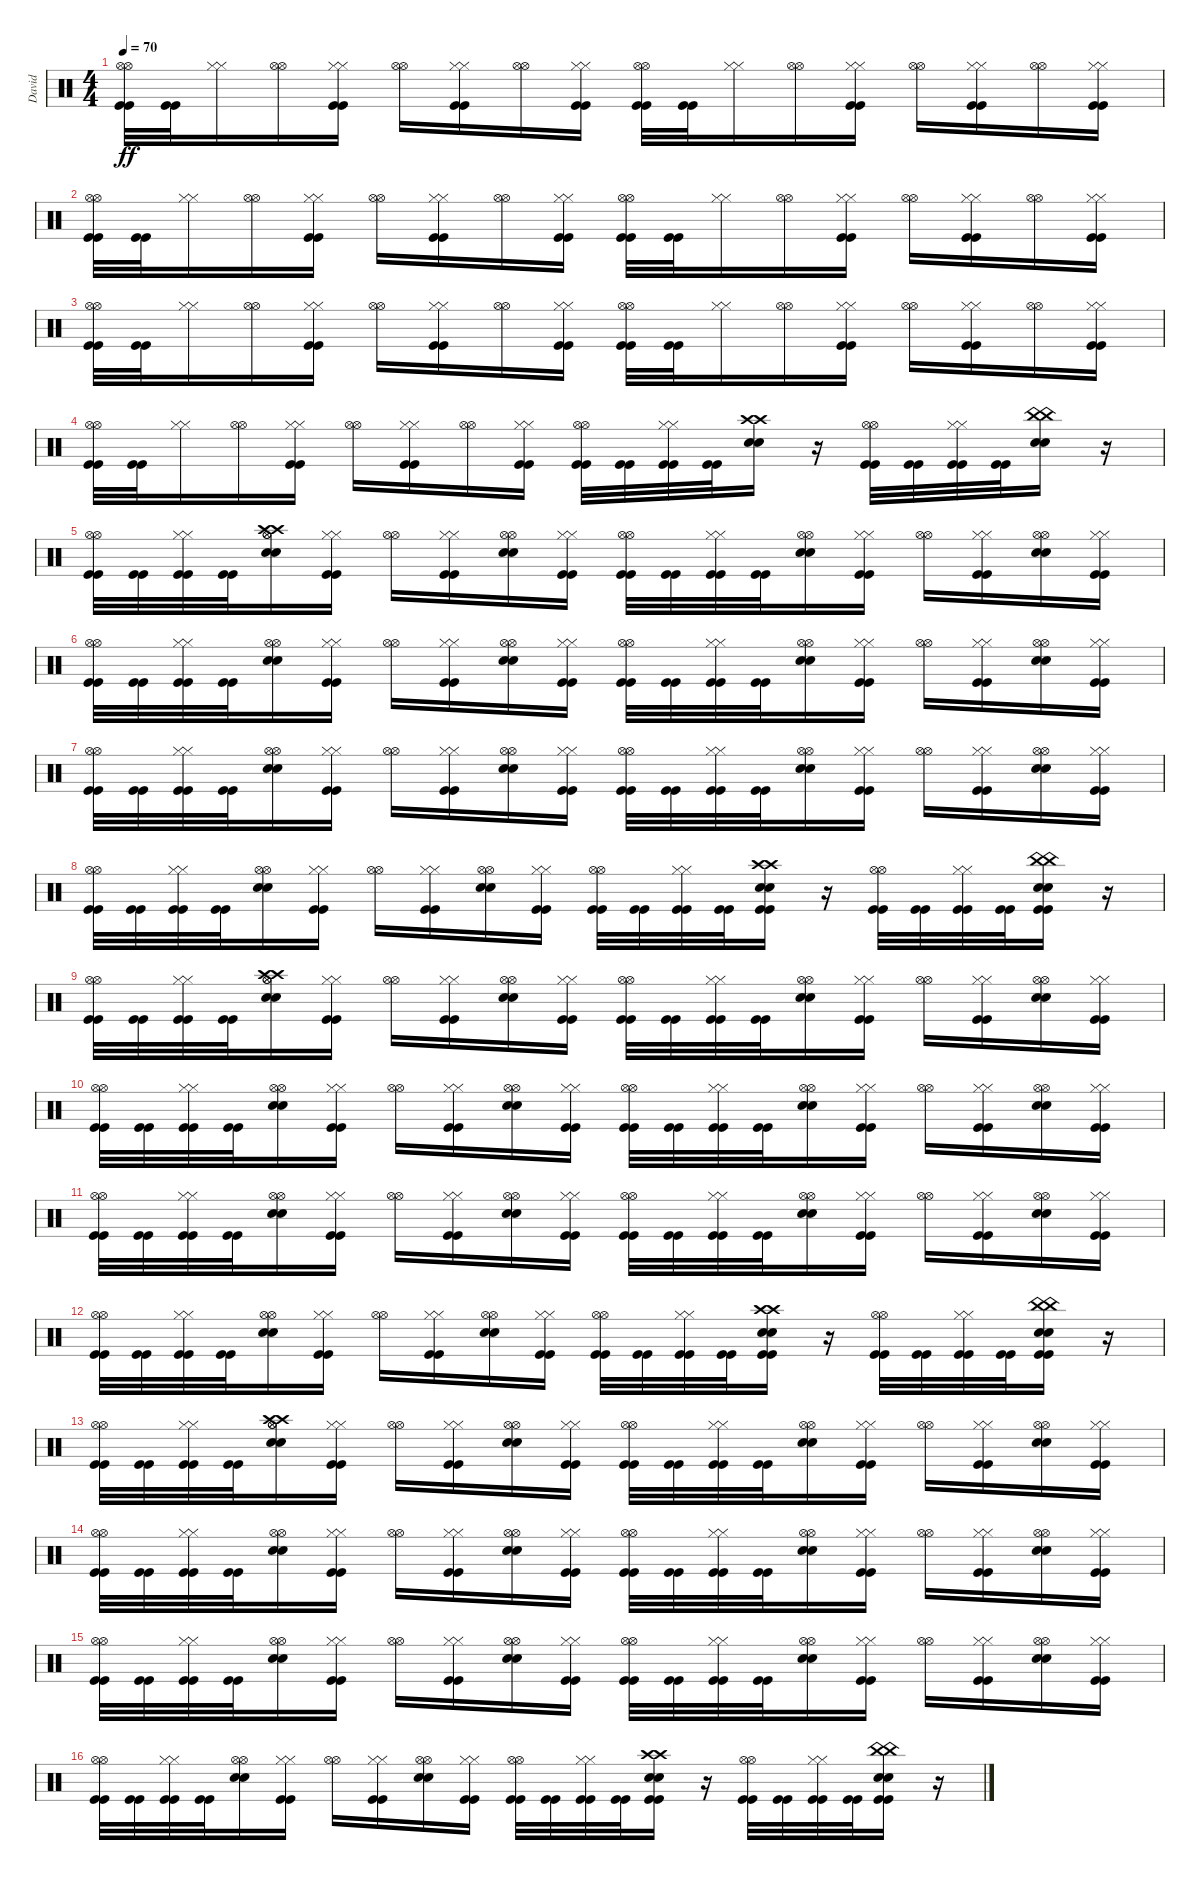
\track ("David" "David") {instrument percussion}
\staff {score}
\articulation defaults
\ts (4 4)
\tempo 70
\clef neutral
\ks c
("Kick (hit)" "Kick (hit)" "Hi-Hat (open)" "Hi-Hat (open)").32{dy ff} ("Kick (hit)" "Kick (hit)").32 ("Hi-Hat (closed)" "Hi-Hat (closed)").16 ("Hi-Hat (open)" "Hi-Hat (open)").16 ("Hi-Hat (closed)" "Hi-Hat (closed)" "Kick (hit)" "Kick (hit)").16 ("Hi-Hat (open)" "Hi-Hat (open)").16 ("Hi-Hat (closed)" "Hi-Hat (closed)" "Kick (hit)" "Kick (hit)").16 ("Hi-Hat (open)" "Hi-Hat (open)").16 ("Kick (hit)" "Kick (hit)" "Hi-Hat (closed)" "Hi-Hat (closed)").16 ("Hi-Hat (open)" "Hi-Hat (open)" "Kick (hit)" "Kick (hit)").32 ("Kick (hit)" "Kick (hit)").32 ("Hi-Hat (closed)" "Hi-Hat (closed)").16 ("Hi-Hat (open)" "Hi-Hat (open)").16 ("Hi-Hat (closed)" "Hi-Hat (closed)" "Kick (hit)" "Kick (hit)").16 ("Hi-Hat (open)" "Hi-Hat (open)").16 ("Hi-Hat (closed)" "Hi-Hat (closed)" "Kick (hit)" "Kick (hit)").16 ("Hi-Hat (open)" "Hi-Hat (open)").16 ("Kick (hit)" "Kick (hit)" "Hi-Hat (closed)" "Hi-Hat (closed)").16 |
("Kick (hit)" "Kick (hit)" "Hi-Hat (open)" "Hi-Hat (open)").32 ("Kick (hit)" "Kick (hit)").32 ("Hi-Hat (closed)" "Hi-Hat (closed)").16 ("Hi-Hat (open)" "Hi-Hat (open)").16 ("Kick (hit)" "Kick (hit)" "Hi-Hat (closed)" "Hi-Hat (closed)").16 ("Hi-Hat (open)" "Hi-Hat (open)").16 ("Kick (hit)" "Kick (hit)" "Hi-Hat (closed)" "Hi-Hat (closed)").16 ("Hi-Hat (open)" "Hi-Hat (open)").16 ("Kick (hit)" "Kick (hit)" "Hi-Hat (closed)" "Hi-Hat (closed)").16 ("Kick (hit)" "Kick (hit)" "Hi-Hat (open)" "Hi-Hat (open)").32 ("Kick (hit)" "Kick (hit)").32 ("Hi-Hat (closed)" "Hi-Hat (closed)").16 ("Hi-Hat (open)" "Hi-Hat (open)").16 ("Kick (hit)" "Kick (hit)" "Hi-Hat (closed)" "Hi-Hat (closed)").16 ("Hi-Hat (open)" "Hi-Hat (open)").16 ("Hi-Hat (closed)" "Hi-Hat (closed)" "Kick (hit)" "Kick (hit)").16 ("Hi-Hat (open)" "Hi-Hat (open)").16 ("Kick (hit)" "Kick (hit)" "Hi-Hat (closed)" "Hi-Hat (closed)").16 |
("Hi-Hat (open)" "Hi-Hat (open)" "Kick (hit)" "Kick (hit)").32 ("Kick (hit)" "Kick (hit)").32 ("Hi-Hat (closed)" "Hi-Hat (closed)").16 ("Hi-Hat (open)" "Hi-Hat (open)").16 ("Hi-Hat (closed)" "Hi-Hat (closed)" "Kick (hit)" "Kick (hit)").16 ("Hi-Hat (open)" "Hi-Hat (open)").16 ("Hi-Hat (closed)" "Hi-Hat (closed)" "Kick (hit)" "Kick (hit)").16 ("Hi-Hat (open)" "Hi-Hat (open)").16 ("Hi-Hat (closed)" "Hi-Hat (closed)" "Kick (hit)" "Kick (hit)").16 ("Hi-Hat (open)" "Hi-Hat (open)" "Kick (hit)" "Kick (hit)").32 ("Kick (hit)" "Kick (hit)").32 ("Hi-Hat (closed)" "Hi-Hat (closed)").16 ("Hi-Hat (open)" "Hi-Hat (open)").16 ("Hi-Hat (closed)" "Hi-Hat (closed)" "Kick (hit)" "Kick (hit)").16 ("Hi-Hat (open)" "Hi-Hat (open)").16 ("Kick (hit)" "Kick (hit)" "Hi-Hat (closed)" "Hi-Hat (closed)").16 ("Hi-Hat (open)" "Hi-Hat (open)").16 ("Hi-Hat (closed)" "Hi-Hat (closed)" "Kick (hit)" "Kick (hit)").16 |
("Kick (hit)" "Kick (hit)" "Hi-Hat (open)" "Hi-Hat (open)").32 ("Kick (hit)" "Kick (hit)").32 ("Hi-Hat (closed)" "Hi-Hat (closed)").16 ("Hi-Hat (open)" "Hi-Hat (open)").16 ("Kick (hit)" "Kick (hit)" "Hi-Hat (closed)" "Hi-Hat (closed)").16 ("Hi-Hat (open)" "Hi-Hat (open)").16 ("Kick (hit)" "Kick (hit)" "Hi-Hat (closed)" "Hi-Hat (closed)").16 ("Hi-Hat (open)" "Hi-Hat (open)").16 ("Kick (hit)" "Kick (hit)" "Hi-Hat (closed)" "Hi-Hat (closed)").16 ("Kick (hit)" "Kick (hit)" "Hi-Hat (open)" "Hi-Hat (open)").32 ("Kick (hit)" "Kick (hit)").32 ("Hi-Hat (closed)" "Hi-Hat (closed)" "Kick (hit)" "Kick (hit)").32 ("Kick (hit)" "Kick (hit)").32 ("Crash high (hit)" "Crash high (hit)" "Snare (hit) 2" "Snare (hit) 2").16 r.16 ("Kick (hit)" "Kick (hit)" "Hi-Hat (open)" "Hi-Hat (open)").32 ("Kick (hit)" "Kick (hit)").32 ("Kick (hit)" "Kick (hit)" "Hi-Hat (closed)" "Hi-Hat (closed)").32 ("Kick (hit)" "Kick (hit)").32 ("Snare (hit) 2" "Snare (hit) 2" "China (hit)" "China (hit)").16 r.16 |
("Hi-Hat (open)" "Hi-Hat (open)" "Kick (hit)" "Kick (hit)").32 ("Kick (hit)" "Kick (hit)").32 ("Hi-Hat (closed)" "Hi-Hat (closed)" "Kick (hit)" "Kick (hit)").32 ("Kick (hit)" "Kick (hit)").32 ("Hi-Hat (open)" "Hi-Hat (open)" "Snare (hit) 2" "Snare (hit) 2" "Crash high (hit)" "Crash high (hit)").16 ("Kick (hit)" "Kick (hit)" "Hi-Hat (closed)" "Hi-Hat (closed)").16 ("Hi-Hat (open)" "Hi-Hat (open)").16 ("Kick (hit)" "Kick (hit)" "Hi-Hat (closed)" "Hi-Hat (closed)").16 ("Snare (hit) 2" "Snare (hit) 2" "Hi-Hat (open)" "Hi-Hat (open)").16 ("Hi-Hat (closed)" "Hi-Hat (closed)" "Kick (hit)" "Kick (hit)").16 ("Kick (hit)" "Kick (hit)" "Hi-Hat (open)" "Hi-Hat (open)").32 ("Kick (hit)" "Kick (hit)").32 ("Hi-Hat (closed)" "Hi-Hat (closed)" "Kick (hit)" "Kick (hit)").32 ("Kick (hit)" "Kick (hit)").32 ("Hi-Hat (open)" "Hi-Hat (open)" "Snare (hit) 2" "Snare (hit) 2").16 ("Kick (hit)" "Kick (hit)" "Hi-Hat (closed)" "Hi-Hat (closed)").16 ("Hi-Hat (open)" "Hi-Hat (open)").16 ("Kick (hit)" "Kick (hit)" "Hi-Hat (closed)" "Hi-Hat (closed)").16 ("Hi-Hat (open)" "Hi-Hat (open)" "Snare (hit) 2" "Snare (hit) 2").16 ("Hi-Hat (closed)" "Hi-Hat (closed)" "Kick (hit)" "Kick (hit)").16 |
("Hi-Hat (open)" "Hi-Hat (open)" "Kick (hit)" "Kick (hit)").32 ("Kick (hit)" "Kick (hit)").32 ("Hi-Hat (closed)" "Hi-Hat (closed)" "Kick (hit)" "Kick (hit)").32 ("Kick (hit)" "Kick (hit)").32 ("Snare (hit) 2" "Snare (hit) 2" "Hi-Hat (open)" "Hi-Hat (open)").16 ("Hi-Hat (closed)" "Hi-Hat (closed)" "Kick (hit)" "Kick (hit)").16 ("Hi-Hat (open)" "Hi-Hat (open)").16 ("Hi-Hat (closed)" "Hi-Hat (closed)" "Kick (hit)" "Kick (hit)").16 ("Hi-Hat (open)" "Hi-Hat (open)" "Snare (hit) 2" "Snare (hit) 2").16 ("Hi-Hat (closed)" "Hi-Hat (closed)" "Kick (hit)" "Kick (hit)").16 ("Hi-Hat (open)" "Hi-Hat (open)" "Kick (hit)" "Kick (hit)").32 ("Kick (hit)" "Kick (hit)").32 ("Hi-Hat (closed)" "Hi-Hat (closed)" "Kick (hit)" "Kick (hit)").32 ("Kick (hit)" "Kick (hit)").32 ("Hi-Hat (open)" "Hi-Hat (open)" "Snare (hit) 2" "Snare (hit) 2").16 ("Hi-Hat (closed)" "Hi-Hat (closed)" "Kick (hit)" "Kick (hit)").16 ("Hi-Hat (open)" "Hi-Hat (open)").16 ("Kick (hit)" "Kick (hit)" "Hi-Hat (closed)" "Hi-Hat (closed)").16 ("Hi-Hat (open)" "Hi-Hat (open)" "Snare (hit) 2" "Snare (hit) 2").16 ("Hi-Hat (closed)" "Hi-Hat (closed)" "Kick (hit)" "Kick (hit)").16 |
("Hi-Hat (open)" "Hi-Hat (open)" "Kick (hit)" "Kick (hit)").32 ("Kick (hit)" "Kick (hit)").32 ("Hi-Hat (closed)" "Hi-Hat (closed)" "Kick (hit)" "Kick (hit)").32 ("Kick (hit)" "Kick (hit)").32 ("Snare (hit) 2" "Snare (hit) 2" "Hi-Hat (open)" "Hi-Hat (open)").16 ("Hi-Hat (closed)" "Hi-Hat (closed)" "Kick (hit)" "Kick (hit)").16 ("Hi-Hat (open)" "Hi-Hat (open)").16 ("Hi-Hat (closed)" "Hi-Hat (closed)" "Kick (hit)" "Kick (hit)").16 ("Snare (hit) 2" "Snare (hit) 2" "Hi-Hat (open)" "Hi-Hat (open)").16 ("Kick (hit)" "Kick (hit)" "Hi-Hat (closed)" "Hi-Hat (closed)").16 ("Kick (hit)" "Kick (hit)" "Hi-Hat (open)" "Hi-Hat (open)").32 ("Kick (hit)" "Kick (hit)").32 ("Hi-Hat (closed)" "Hi-Hat (closed)" "Kick (hit)" "Kick (hit)").32 ("Kick (hit)" "Kick (hit)").32 ("Hi-Hat (open)" "Hi-Hat (open)" "Snare (hit) 2" "Snare (hit) 2").16 ("Kick (hit)" "Kick (hit)" "Hi-Hat (closed)" "Hi-Hat (closed)").16 ("Hi-Hat (open)" "Hi-Hat (open)").16 ("Kick (hit)" "Kick (hit)" "Hi-Hat (closed)" "Hi-Hat (closed)").16 ("Hi-Hat (open)" "Hi-Hat (open)" "Snare (hit) 2" "Snare (hit) 2").16 ("Kick (hit)" "Kick (hit)" "Hi-Hat (closed)" "Hi-Hat (closed)").16 |
("Hi-Hat (open)" "Hi-Hat (open)" "Kick (hit)" "Kick (hit)").32 ("Kick (hit)" "Kick (hit)").32 ("Hi-Hat (closed)" "Hi-Hat (closed)" "Kick (hit)" "Kick (hit)").32 ("Kick (hit)" "Kick (hit)").32 ("Snare (hit) 2" "Snare (hit) 2" "Hi-Hat (open)" "Hi-Hat (open)").16 ("Hi-Hat (closed)" "Hi-Hat (closed)" "Kick (hit)" "Kick (hit)").16 ("Hi-Hat (open)" "Hi-Hat (open)").16 ("Hi-Hat (closed)" "Hi-Hat (closed)" "Kick (hit)" "Kick (hit)").16 ("Snare (hit) 2" "Snare (hit) 2" "Hi-Hat (open)" "Hi-Hat (open)").16 ("Kick (hit)" "Kick (hit)" "Hi-Hat (closed)" "Hi-Hat (closed)").16 ("Kick (hit)" "Kick (hit)" "Hi-Hat (open)" "Hi-Hat (open)").32 ("Kick (hit)" "Kick (hit)").32 ("Hi-Hat (closed)" "Hi-Hat (closed)" "Kick (hit)" "Kick (hit)").32 ("Kick (hit)" "Kick (hit)").32 ("Snare (hit) 2" "Snare (hit) 2" "Crash high (hit)" "Crash high (hit)" "Kick (hit)" "Kick (hit)").16 r.16 ("Kick (hit)" "Kick (hit)" "Hi-Hat (open)" "Hi-Hat (open)").32 ("Kick (hit)" "Kick (hit)").32 ("Kick (hit)" "Kick (hit)" "Hi-Hat (closed)" "Hi-Hat (closed)").32 ("Kick (hit)" "Kick (hit)").32 ("Snare (hit) 2" "Snare (hit) 2" "China (hit)" "China (hit)" "Kick (hit)" "Kick (hit)").16 r.16 |
("Kick (hit)" "Kick (hit)" "Hi-Hat (open)" "Hi-Hat (open)").32 ("Kick (hit)" "Kick (hit)").32 ("Kick (hit)" "Kick (hit)" "Hi-Hat (closed)" "Hi-Hat (closed)").32 ("Kick (hit)" "Kick (hit)").32 ("Crash high (hit)" "Crash high (hit)" "Snare (hit) 2" "Snare (hit) 2" "Hi-Hat (open)" "Hi-Hat (open)").16 ("Hi-Hat (closed)" "Hi-Hat (closed)" "Kick (hit)" "Kick (hit)").16 ("Hi-Hat (open)" "Hi-Hat (open)").16 ("Hi-Hat (closed)" "Hi-Hat (closed)" "Kick (hit)" "Kick (hit)").16 ("Hi-Hat (open)" "Hi-Hat (open)" "Snare (hit) 2" "Snare (hit) 2").16 ("Kick (hit)" "Kick (hit)" "Hi-Hat (closed)" "Hi-Hat (closed)").16 ("Hi-Hat (open)" "Hi-Hat (open)" "Kick (hit)" "Kick (hit)").32 ("Kick (hit)" "Kick (hit)").32 ("Kick (hit)" "Kick (hit)" "Hi-Hat (closed)" "Hi-Hat (closed)").32 ("Kick (hit)" "Kick (hit)").32 ("Snare (hit) 2" "Snare (hit) 2" "Hi-Hat (open)" "Hi-Hat (open)").16 ("Hi-Hat (closed)" "Hi-Hat (closed)" "Kick (hit)" "Kick (hit)").16 ("Hi-Hat (open)" "Hi-Hat (open)").16 ("Hi-Hat (closed)" "Hi-Hat (closed)" "Kick (hit)" "Kick (hit)").16 ("Snare (hit) 2" "Snare (hit) 2" "Hi-Hat (open)" "Hi-Hat (open)").16 ("Kick (hit)" "Kick (hit)" "Hi-Hat (closed)" "Hi-Hat (closed)").16 |
("Kick (hit)" "Kick (hit)" "Hi-Hat (open)" "Hi-Hat (open)").32 ("Kick (hit)" "Kick (hit)").32 ("Kick (hit)" "Kick (hit)" "Hi-Hat (closed)" "Hi-Hat (closed)").32 ("Kick (hit)" "Kick (hit)").32 ("Hi-Hat (open)" "Hi-Hat (open)" "Snare (hit) 2" "Snare (hit) 2").16 ("Kick (hit)" "Kick (hit)" "Hi-Hat (closed)" "Hi-Hat (closed)").16 ("Hi-Hat (open)" "Hi-Hat (open)").16 ("Kick (hit)" "Kick (hit)" "Hi-Hat (closed)" "Hi-Hat (closed)").16 ("Snare (hit) 2" "Snare (hit) 2" "Hi-Hat (open)" "Hi-Hat (open)").16 ("Kick (hit)" "Kick (hit)" "Hi-Hat (closed)" "Hi-Hat (closed)").16 ("Kick (hit)" "Kick (hit)" "Hi-Hat (open)" "Hi-Hat (open)").32 ("Kick (hit)" "Kick (hit)").32 ("Kick (hit)" "Kick (hit)" "Hi-Hat (closed)" "Hi-Hat (closed)").32 ("Kick (hit)" "Kick (hit)").32 ("Snare (hit) 2" "Snare (hit) 2" "Hi-Hat (open)" "Hi-Hat (open)").16 ("Kick (hit)" "Kick (hit)" "Hi-Hat (closed)" "Hi-Hat (closed)").16 ("Hi-Hat (open)" "Hi-Hat (open)").16 ("Hi-Hat (closed)" "Hi-Hat (closed)" "Kick (hit)" "Kick (hit)").16 ("Snare (hit) 2" "Snare (hit) 2" "Hi-Hat (open)" "Hi-Hat (open)").16 ("Kick (hit)" "Kick (hit)" "Hi-Hat (closed)" "Hi-Hat (closed)").16 |
("Kick (hit)" "Kick (hit)" "Hi-Hat (open)" "Hi-Hat (open)").32 ("Kick (hit)" "Kick (hit)").32 ("Kick (hit)" "Kick (hit)" "Hi-Hat (closed)" "Hi-Hat (closed)").32 ("Kick (hit)" "Kick (hit)").32 ("Hi-Hat (open)" "Hi-Hat (open)" "Snare (hit) 2" "Snare (hit) 2").16 ("Kick (hit)" "Kick (hit)" "Hi-Hat (closed)" "Hi-Hat (closed)").16 ("Hi-Hat (open)" "Hi-Hat (open)").16 ("Kick (hit)" "Kick (hit)" "Hi-Hat (closed)" "Hi-Hat (closed)").16 ("Hi-Hat (open)" "Hi-Hat (open)" "Snare (hit) 2" "Snare (hit) 2").16 ("Hi-Hat (closed)" "Hi-Hat (closed)" "Kick (hit)" "Kick (hit)").16 ("Hi-Hat (open)" "Hi-Hat (open)" "Kick (hit)" "Kick (hit)").32 ("Kick (hit)" "Kick (hit)").32 ("Kick (hit)" "Kick (hit)" "Hi-Hat (closed)" "Hi-Hat (closed)").32 ("Kick (hit)" "Kick (hit)").32 ("Snare (hit) 2" "Snare (hit) 2" "Hi-Hat (open)" "Hi-Hat (open)").16 ("Hi-Hat (closed)" "Hi-Hat (closed)" "Kick (hit)" "Kick (hit)").16 ("Hi-Hat (open)" "Hi-Hat (open)").16 ("Hi-Hat (closed)" "Hi-Hat (closed)" "Kick (hit)" "Kick (hit)").16 ("Snare (hit) 2" "Snare (hit) 2" "Hi-Hat (open)" "Hi-Hat (open)").16 ("Hi-Hat (closed)" "Hi-Hat (closed)" "Kick (hit)" "Kick (hit)").16 |
("Kick (hit)" "Kick (hit)" "Hi-Hat (open)" "Hi-Hat (open)").32 ("Kick (hit)" "Kick (hit)").32 ("Kick (hit)" "Kick (hit)" "Hi-Hat (closed)" "Hi-Hat (closed)").32 ("Kick (hit)" "Kick (hit)").32 ("Hi-Hat (open)" "Hi-Hat (open)" "Snare (hit) 2" "Snare (hit) 2").16 ("Kick (hit)" "Kick (hit)" "Hi-Hat (closed)" "Hi-Hat (closed)").16 ("Hi-Hat (open)" "Hi-Hat (open)").16 ("Kick (hit)" "Kick (hit)" "Hi-Hat (closed)" "Hi-Hat (closed)").16 ("Hi-Hat (open)" "Hi-Hat (open)" "Snare (hit) 2" "Snare (hit) 2").16 ("Hi-Hat (closed)" "Hi-Hat (closed)" "Kick (hit)" "Kick (hit)").16 ("Hi-Hat (open)" "Hi-Hat (open)" "Kick (hit)" "Kick (hit)").32 ("Kick (hit)" "Kick (hit)").32 ("Kick (hit)" "Kick (hit)" "Hi-Hat (closed)" "Hi-Hat (closed)").32 ("Kick (hit)" "Kick (hit)").32 ("Kick (hit)" "Kick (hit)" "Crash high (hit)" "Crash high (hit)" "Snare (hit) 2" "Snare (hit) 2").16 r.16 ("Hi-Hat (open)" "Hi-Hat (open)" "Kick (hit)" "Kick (hit)").32 ("Kick (hit)" "Kick (hit)").32 ("Hi-Hat (closed)" "Hi-Hat (closed)" "Kick (hit)" "Kick (hit)").32 ("Kick (hit)" "Kick (hit)").32 ("Kick (hit)" "Kick (hit)" "China (hit)" "China (hit)" "Snare (hit) 2" "Snare (hit) 2").16 r.16 |
("Kick (hit)" "Kick (hit)" "Hi-Hat (open)" "Hi-Hat (open)").32 ("Kick (hit)" "Kick (hit)").32 ("Kick (hit)" "Kick (hit)" "Hi-Hat (closed)" "Hi-Hat (closed)").32 ("Kick (hit)" "Kick (hit)").32 ("Crash high (hit)" "Crash high (hit)" "Snare (hit) 2" "Snare (hit) 2" "Hi-Hat (open)" "Hi-Hat (open)").16 ("Hi-Hat (closed)" "Hi-Hat (closed)" "Kick (hit)" "Kick (hit)").16 ("Hi-Hat (open)" "Hi-Hat (open)").16 ("Hi-Hat (closed)" "Hi-Hat (closed)" "Kick (hit)" "Kick (hit)").16 ("Hi-Hat (open)" "Hi-Hat (open)" "Snare (hit) 2" "Snare (hit) 2").16 ("Kick (hit)" "Kick (hit)" "Hi-Hat (closed)" "Hi-Hat (closed)").16 ("Hi-Hat (open)" "Hi-Hat (open)" "Kick (hit)" "Kick (hit)").32 ("Kick (hit)" "Kick (hit)").32 ("Kick (hit)" "Kick (hit)" "Hi-Hat (closed)" "Hi-Hat (closed)").32 ("Kick (hit)" "Kick (hit)").32 ("Snare (hit) 2" "Snare (hit) 2" "Hi-Hat (open)" "Hi-Hat (open)").16 ("Hi-Hat (closed)" "Hi-Hat (closed)" "Kick (hit)" "Kick (hit)").16 ("Hi-Hat (open)" "Hi-Hat (open)").16 ("Hi-Hat (closed)" "Hi-Hat (closed)" "Kick (hit)" "Kick (hit)").16 ("Snare (hit) 2" "Snare (hit) 2" "Hi-Hat (open)" "Hi-Hat (open)").16 ("Kick (hit)" "Kick (hit)" "Hi-Hat (closed)" "Hi-Hat (closed)").16 |
("Kick (hit)" "Kick (hit)" "Hi-Hat (open)" "Hi-Hat (open)").32 ("Kick (hit)" "Kick (hit)").32 ("Kick (hit)" "Kick (hit)" "Hi-Hat (closed)" "Hi-Hat (closed)").32 ("Kick (hit)" "Kick (hit)").32 ("Hi-Hat (open)" "Hi-Hat (open)" "Snare (hit) 2" "Snare (hit) 2").16 ("Kick (hit)" "Kick (hit)" "Hi-Hat (closed)" "Hi-Hat (closed)").16 ("Hi-Hat (open)" "Hi-Hat (open)").16 ("Kick (hit)" "Kick (hit)" "Hi-Hat (closed)" "Hi-Hat (closed)").16 ("Snare (hit) 2" "Snare (hit) 2" "Hi-Hat (open)" "Hi-Hat (open)").16 ("Kick (hit)" "Kick (hit)" "Hi-Hat (closed)" "Hi-Hat (closed)").16 ("Kick (hit)" "Kick (hit)" "Hi-Hat (open)" "Hi-Hat (open)").32 ("Kick (hit)" "Kick (hit)").32 ("Kick (hit)" "Kick (hit)" "Hi-Hat (closed)" "Hi-Hat (closed)").32 ("Kick (hit)" "Kick (hit)").32 ("Snare (hit) 2" "Snare (hit) 2" "Hi-Hat (open)" "Hi-Hat (open)").16 ("Kick (hit)" "Kick (hit)" "Hi-Hat (closed)" "Hi-Hat (closed)").16 ("Hi-Hat (open)" "Hi-Hat (open)").16 ("Hi-Hat (closed)" "Hi-Hat (closed)" "Kick (hit)" "Kick (hit)").16 ("Snare (hit) 2" "Snare (hit) 2" "Hi-Hat (open)" "Hi-Hat (open)").16 ("Kick (hit)" "Kick (hit)" "Hi-Hat (closed)" "Hi-Hat (closed)").16 |
("Kick (hit)" "Kick (hit)" "Hi-Hat (open)" "Hi-Hat (open)").32 ("Kick (hit)" "Kick (hit)").32 ("Kick (hit)" "Kick (hit)" "Hi-Hat (closed)" "Hi-Hat (closed)").32 ("Kick (hit)" "Kick (hit)").32 ("Hi-Hat (open)" "Hi-Hat (open)" "Snare (hit) 2" "Snare (hit) 2").16 ("Kick (hit)" "Kick (hit)" "Hi-Hat (closed)" "Hi-Hat (closed)").16 ("Hi-Hat (open)" "Hi-Hat (open)").16 ("Kick (hit)" "Kick (hit)" "Hi-Hat (closed)" "Hi-Hat (closed)").16 ("Hi-Hat (open)" "Hi-Hat (open)" "Snare (hit) 2" "Snare (hit) 2").16 ("Hi-Hat (closed)" "Hi-Hat (closed)" "Kick (hit)" "Kick (hit)").16 ("Hi-Hat (open)" "Hi-Hat (open)" "Kick (hit)" "Kick (hit)").32 ("Kick (hit)" "Kick (hit)").32 ("Kick (hit)" "Kick (hit)" "Hi-Hat (closed)" "Hi-Hat (closed)").32 ("Kick (hit)" "Kick (hit)").32 ("Snare (hit) 2" "Snare (hit) 2" "Hi-Hat (open)" "Hi-Hat (open)").16 ("Hi-Hat (closed)" "Hi-Hat (closed)" "Kick (hit)" "Kick (hit)").16 ("Hi-Hat (open)" "Hi-Hat (open)").16 ("Hi-Hat (closed)" "Hi-Hat (closed)" "Kick (hit)" "Kick (hit)").16 ("Snare (hit) 2" "Snare (hit) 2" "Hi-Hat (open)" "Hi-Hat (open)").16 ("Hi-Hat (closed)" "Hi-Hat (closed)" "Kick (hit)" "Kick (hit)").16 |
("Kick (hit)" "Kick (hit)" "Hi-Hat (open)" "Hi-Hat (open)").32 ("Kick (hit)" "Kick (hit)").32 ("Kick (hit)" "Kick (hit)" "Hi-Hat (closed)" "Hi-Hat (closed)").32 ("Kick (hit)" "Kick (hit)").32 ("Hi-Hat (open)" "Hi-Hat (open)" "Snare (hit) 2" "Snare (hit) 2").16 ("Kick (hit)" "Kick (hit)" "Hi-Hat (closed)" "Hi-Hat (closed)").16 ("Hi-Hat (open)" "Hi-Hat (open)").16 ("Kick (hit)" "Kick (hit)" "Hi-Hat (closed)" "Hi-Hat (closed)").16 ("Hi-Hat (open)" "Hi-Hat (open)" "Snare (hit) 2" "Snare (hit) 2").16 ("Hi-Hat (closed)" "Hi-Hat (closed)" "Kick (hit)" "Kick (hit)").16 ("Hi-Hat (open)" "Hi-Hat (open)" "Kick (hit)" "Kick (hit)").32 ("Kick (hit)" "Kick (hit)").32 ("Kick (hit)" "Kick (hit)" "Hi-Hat (closed)" "Hi-Hat (closed)").32 ("Kick (hit)" "Kick (hit)").32 ("Kick (hit)" "Kick (hit)" "Crash high (hit)" "Crash high (hit)" "Snare (hit) 2" "Snare (hit) 2").16 r.16 ("Hi-Hat (open)" "Hi-Hat (open)" "Kick (hit)" "Kick (hit)").32 ("Kick (hit)" "Kick (hit)").32 ("Hi-Hat (closed)" "Hi-Hat (closed)" "Kick (hit)" "Kick (hit)").32 ("Kick (hit)" "Kick (hit)").32 ("Kick (hit)" "Kick (hit)" "China (hit)" "China (hit)" "Snare (hit) 2" "Snare (hit) 2").16 r.16
